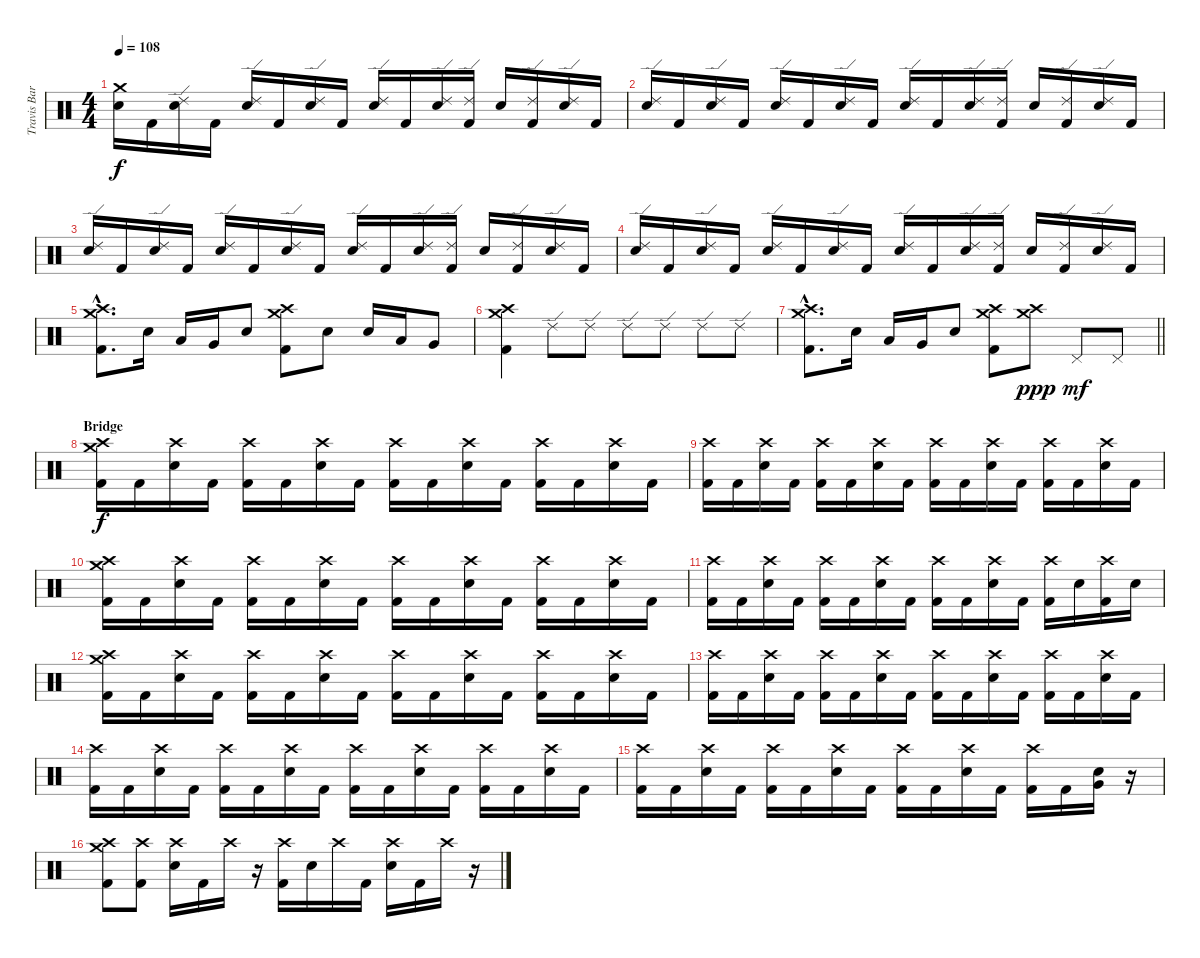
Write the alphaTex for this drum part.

\track ("Travis Barker" "Travis Bar") {instrument percussion}
\staff {score}
\articulation defaults
\ts (4 4)
\tempo 108
\clef neutral
\ks c
("Crash medium (hit)" "Electric Snare (hit)").16{dy f} "Kick (hit) 2".16 ("Ride (edge) 2" "Electric Snare (hit)").16 "Kick (hit) 2".16 ("Ride (edge) 2" "Electric Snare (hit)").16 "Kick (hit) 2".16 ("Ride (edge) 2" "Electric Snare (hit)").16 "Kick (hit) 2".16 ("Ride (edge) 2" "Electric Snare (hit)").16 "Kick (hit) 2".16 ("Ride (edge) 2" "Electric Snare (hit)").16 ("Ride (edge) 2" "Kick (hit) 2").16 "Electric Snare (hit)".16 ("Ride (edge) 2" "Kick (hit) 2").16 ("Ride (edge) 2" "Electric Snare (hit)").16 "Kick (hit) 2".16 |
("Ride (edge) 2" "Electric Snare (hit)").16 "Kick (hit) 2".16 ("Ride (edge) 2" "Electric Snare (hit)").16 "Kick (hit) 2".16 ("Ride (edge) 2" "Electric Snare (hit)").16 "Kick (hit) 2".16 ("Ride (edge) 2" "Electric Snare (hit)").16 "Kick (hit) 2".16 ("Ride (edge) 2" "Electric Snare (hit)").16 "Kick (hit) 2".16 ("Ride (edge) 2" "Electric Snare (hit)").16 ("Ride (edge) 2" "Kick (hit) 2").16 "Electric Snare (hit)".16 ("Ride (edge) 2" "Kick (hit) 2").16 ("Ride (edge) 2" "Electric Snare (hit)").16 "Kick (hit) 2".16 |
("Ride (edge) 2" "Electric Snare (hit)").16 "Kick (hit) 2".16 ("Ride (edge) 2" "Electric Snare (hit)").16 "Kick (hit) 2".16 ("Ride (edge) 2" "Electric Snare (hit)").16 "Kick (hit) 2".16 ("Ride (edge) 2" "Electric Snare (hit)").16 "Kick (hit) 2".16 ("Ride (edge) 2" "Electric Snare (hit)").16 "Kick (hit) 2".16 ("Ride (edge) 2" "Electric Snare (hit)").16 ("Ride (edge) 2" "Kick (hit) 2").16 "Electric Snare (hit)".16 ("Ride (edge) 2" "Kick (hit) 2").16 ("Ride (edge) 2" "Electric Snare (hit)").16 "Kick (hit) 2".16 |
("Ride (edge) 2" "Electric Snare (hit)").16 "Kick (hit) 2".16 ("Ride (edge) 2" "Electric Snare (hit)").16 "Kick (hit) 2".16 ("Ride (edge) 2" "Electric Snare (hit)").16 "Kick (hit) 2".16 ("Ride (edge) 2" "Electric Snare (hit)").16 "Kick (hit) 2".16 ("Ride (edge) 2" "Electric Snare (hit)").16 "Kick (hit) 2".16 ("Ride (edge) 2" "Electric Snare (hit)").16 ("Ride (edge) 2" "Kick (hit) 2").16 "Electric Snare (hit)".16 ("Ride (edge) 2" "Kick (hit) 2").16 ("Ride (edge) 2" "Electric Snare (hit)").16 "Kick (hit) 2".16 |
("Crash medium (hit)"{hac} "Crash high (hit)"{hac} "Kick (hit) 2"{hac}).8{d} "Electric Snare (hit)".16 "Low Tom (hit)".16 "Very Low Tom (hit)".16 "Electric Snare (hit)".8 ("Crash medium (hit)" "Crash high (hit)" "Kick (hit) 2").8 "Electric Snare (hit)".8 "Electric Snare (hit)".16 "Low Tom (hit)".16 "Very Low Tom (hit)".8 |
("Crash medium (hit)" "Crash high (hit)" "Kick (hit) 2").4 "Ride (edge) 2".8 "Ride (edge) 2".8 "Ride (edge) 2".8 "Ride (edge) 2".8 "Ride (edge) 2".8 "Ride (edge) 2".8 |
\barLineRight lightlight
("Crash medium (hit)"{hac} "Crash high (hit)"{hac} "Kick (hit) 2"{hac}).8{d} "Electric Snare (hit)".16 "Low Tom (hit)".16 "Very Low Tom (hit)".16 "Electric Snare (hit)".8 ("Crash medium (hit)" "Crash high (hit)" "Kick (hit) 2").8 ("Crash medium (hit)" "Crash high (hit)").8{dy ppp} "Pedal Hi-Hat (hit)".8{dy mf} "Pedal Hi-Hat (hit)".8 |
\section ("" "Bridge")
("Crash medium (hit)" "Crash high (hit)" "Kick (hit) 2").16{dy f} "Kick (hit) 2".16 ("Crash high (hit)" "Electric Snare (hit)").16 "Kick (hit) 2".16 ("Crash high (hit)" "Kick (hit) 2").16 "Kick (hit) 2".16 ("Crash high (hit)" "Electric Snare (hit)").16 "Kick (hit) 2".16 ("Crash high (hit)" "Kick (hit) 2").16 "Kick (hit) 2".16 ("Crash high (hit)" "Electric Snare (hit)").16 "Kick (hit) 2".16 ("Crash high (hit)" "Kick (hit) 2").16 "Kick (hit) 2".16 ("Crash high (hit)" "Electric Snare (hit)").16 "Kick (hit) 2".16 |
("Crash high (hit)" "Kick (hit) 2").16 "Kick (hit) 2".16 ("Crash high (hit)" "Electric Snare (hit)").16 "Kick (hit) 2".16 ("Crash high (hit)" "Kick (hit) 2").16 "Kick (hit) 2".16 ("Crash high (hit)" "Electric Snare (hit)").16 "Kick (hit) 2".16 ("Crash high (hit)" "Kick (hit) 2").16 "Kick (hit) 2".16 ("Crash high (hit)" "Electric Snare (hit)").16 "Kick (hit) 2".16 ("Crash high (hit)" "Kick (hit) 2").16 "Kick (hit) 2".16 ("Crash high (hit)" "Electric Snare (hit)").16 "Kick (hit) 2".16 |
("Crash medium (hit)" "Crash high (hit)" "Kick (hit) 2").16 "Kick (hit) 2".16 ("Crash high (hit)" "Electric Snare (hit)").16 "Kick (hit) 2".16 ("Crash high (hit)" "Kick (hit) 2").16 "Kick (hit) 2".16 ("Crash high (hit)" "Electric Snare (hit)").16 "Kick (hit) 2".16 ("Crash high (hit)" "Kick (hit) 2").16 "Kick (hit) 2".16 ("Crash high (hit)" "Electric Snare (hit)").16 "Kick (hit) 2".16 ("Crash high (hit)" "Kick (hit) 2").16 "Kick (hit) 2".16 ("Crash high (hit)" "Electric Snare (hit)").16 "Kick (hit) 2".16 |
("Crash high (hit)" "Kick (hit) 2").16 "Kick (hit) 2".16 ("Crash high (hit)" "Electric Snare (hit)").16 "Kick (hit) 2".16 ("Crash high (hit)" "Kick (hit) 2").16 "Kick (hit) 2".16 ("Crash high (hit)" "Electric Snare (hit)").16 "Kick (hit) 2".16 ("Crash high (hit)" "Kick (hit) 2").16 "Kick (hit) 2".16 ("Crash high (hit)" "Electric Snare (hit)").16 "Kick (hit) 2".16 ("Crash high (hit)" "Kick (hit) 2").16 "Electric Snare (hit)".16 ("Crash high (hit)" "Kick (hit) 2").16 "Electric Snare (hit)".16 |
("Crash medium (hit)" "Crash high (hit)" "Kick (hit) 2").16 "Kick (hit) 2".16 ("Crash high (hit)" "Electric Snare (hit)").16 "Kick (hit) 2".16 ("Crash high (hit)" "Kick (hit) 2").16 "Kick (hit) 2".16 ("Crash high (hit)" "Electric Snare (hit)").16 "Kick (hit) 2".16 ("Crash high (hit)" "Kick (hit) 2").16 "Kick (hit) 2".16 ("Crash high (hit)" "Electric Snare (hit)").16 "Kick (hit) 2".16 ("Crash high (hit)" "Kick (hit) 2").16 "Kick (hit) 2".16 ("Crash high (hit)" "Electric Snare (hit)").16 "Kick (hit) 2".16 |
("Crash high (hit)" "Kick (hit) 2").16 "Kick (hit) 2".16 ("Crash high (hit)" "Electric Snare (hit)").16 "Kick (hit) 2".16 ("Crash high (hit)" "Kick (hit) 2").16 "Kick (hit) 2".16 ("Crash high (hit)" "Electric Snare (hit)").16 "Kick (hit) 2".16 ("Crash high (hit)" "Kick (hit) 2").16 "Kick (hit) 2".16 ("Crash high (hit)" "Electric Snare (hit)").16 "Kick (hit) 2".16 ("Crash high (hit)" "Kick (hit) 2").16 "Kick (hit) 2".16 ("Crash high (hit)" "Electric Snare (hit)").16 "Kick (hit) 2".16 |
("Crash high (hit)" "Kick (hit) 2").16 "Kick (hit) 2".16 ("Crash high (hit)" "Electric Snare (hit)").16 "Kick (hit) 2".16 ("Crash high (hit)" "Kick (hit) 2").16 "Kick (hit) 2".16 ("Crash high (hit)" "Electric Snare (hit)").16 "Kick (hit) 2".16 ("Crash high (hit)" "Kick (hit) 2").16 "Kick (hit) 2".16 ("Crash high (hit)" "Electric Snare (hit)").16 "Kick (hit) 2".16 ("Crash high (hit)" "Kick (hit) 2").16 "Kick (hit) 2".16 ("Crash high (hit)" "Electric Snare (hit)").16 "Kick (hit) 2".16 |
("Crash high (hit)" "Kick (hit) 2").16 "Kick (hit) 2".16 ("Crash high (hit)" "Electric Snare (hit)").16 "Kick (hit) 2".16 ("Crash high (hit)" "Kick (hit) 2").16 "Kick (hit) 2".16 ("Crash high (hit)" "Electric Snare (hit)").16 "Kick (hit) 2".16 ("Crash high (hit)" "Kick (hit) 2").16 "Kick (hit) 2".16 ("Crash high (hit)" "Electric Snare (hit)").16 "Kick (hit) 2".16 ("Crash high (hit)" "Kick (hit) 2").16 "Kick (hit) 2".16 ("Electric Snare (hit)" "Very Low Tom (hit)").16 r.16 |
("Crash medium (hit)" "Crash high (hit)" "Kick (hit) 2").8 ("Crash high (hit)" "Kick (hit) 2").8 ("Crash high (hit)" "Electric Snare (hit)").16 "Kick (hit) 2".16 "Crash high (hit)".16 r.16 ("Crash high (hit)" "Kick (hit) 2").16 "Electric Snare (hit)".16 "Crash high (hit)".16 "Kick (hit) 2".16 ("Crash high (hit)" "Electric Snare (hit)").16 "Kick (hit) 2".16 "Crash high (hit)".16 r.16
